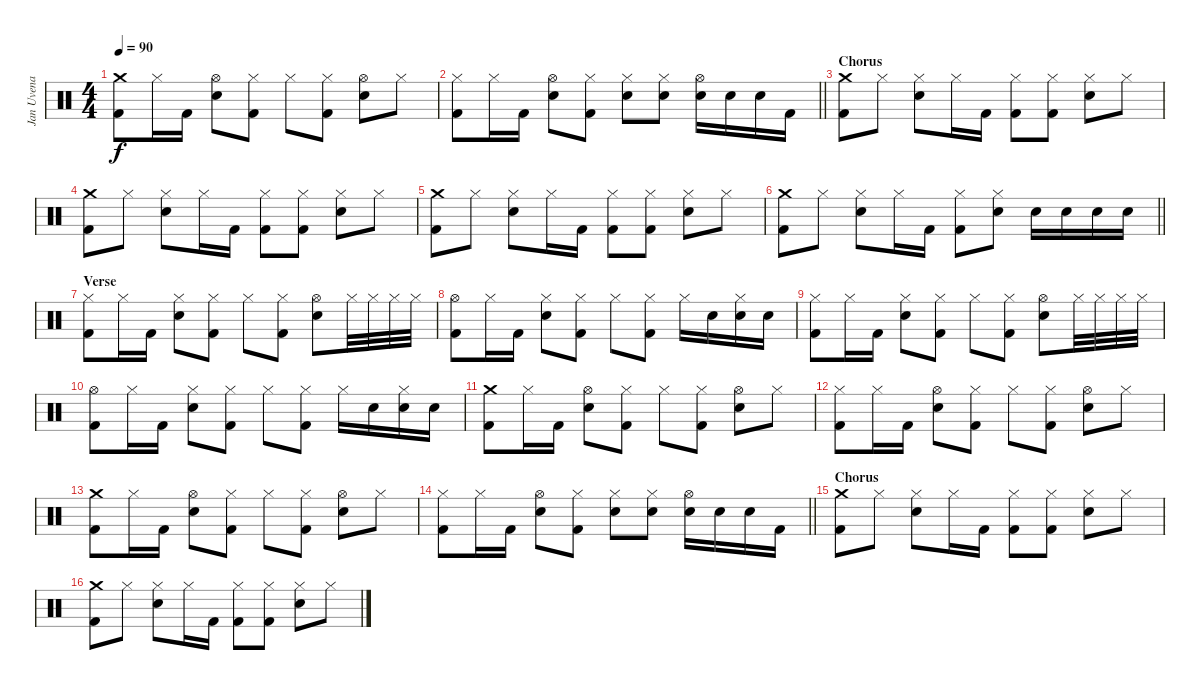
\track ("Jan Uvena" "Jan Uvena") {instrument percussion}
\staff {score}
\articulation defaults
\ts (4 4)
\tempo 90
\clef neutral
\ks c
("Crash medium (hit)" "Kick (hit) 2").8{dy f} "Hi-Hat (closed)".16 "Kick (hit) 2".16 ("Hi-Hat (open)" "Snare (hit) 2").8 ("Hi-Hat (closed)" "Kick (hit) 2").8 "Hi-Hat (closed)".8 ("Hi-Hat (closed)" "Kick (hit) 2").8 ("Hi-Hat (open)" "Snare (hit) 2").8 "Hi-Hat (closed)".8 |
\barLineRight lightlight
("Hi-Hat (closed)" "Kick (hit) 2").8 "Hi-Hat (closed)".16 "Kick (hit) 2".16 ("Hi-Hat (open)" "Snare (hit) 2").8 ("Hi-Hat (closed)" "Kick (hit) 2").8 ("Hi-Hat (closed)" "Snare (hit) 2").8 ("Hi-Hat (closed)" "Snare (hit) 2").8 ("Hi-Hat (open)" "Snare (hit) 2").16 "Snare (hit) 2".16 "Snare (hit) 2".16 "Kick (hit) 2".16 |
\section ("" "Chorus")
("Crash medium (hit)" "Kick (hit) 2").8 "Hi-Hat (closed)".8 ("Hi-Hat (closed)" "Snare (hit) 2").8 "Hi-Hat (closed)".16 "Kick (hit) 2".16 ("Hi-Hat (closed)" "Kick (hit) 2").8 ("Hi-Hat (closed)" "Kick (hit) 2").8 ("Hi-Hat (closed)" "Snare (hit) 2").8 "Hi-Hat (closed)".8 |
("Crash medium (hit)" "Kick (hit) 2").8 "Hi-Hat (closed)".8 ("Hi-Hat (closed)" "Snare (hit) 2").8 "Hi-Hat (closed)".16 "Kick (hit) 2".16 ("Hi-Hat (closed)" "Kick (hit) 2").8 ("Hi-Hat (closed)" "Kick (hit) 2").8 ("Hi-Hat (closed)" "Snare (hit) 2").8 "Hi-Hat (closed)".8 |
("Crash medium (hit)" "Kick (hit) 2").8 "Hi-Hat (closed)".8 ("Hi-Hat (closed)" "Snare (hit) 2").8 "Hi-Hat (closed)".16 "Kick (hit) 2".16 ("Hi-Hat (closed)" "Kick (hit) 2").8 ("Hi-Hat (closed)" "Kick (hit) 2").8 ("Hi-Hat (closed)" "Snare (hit) 2").8 "Hi-Hat (closed)".8 |
\barLineRight lightlight
("Crash medium (hit)" "Kick (hit) 2").8 "Hi-Hat (closed)".8 ("Hi-Hat (closed)" "Snare (hit) 2").8 "Hi-Hat (closed)".16 "Kick (hit) 2".16 ("Hi-Hat (closed)" "Kick (hit) 2").8 ("Hi-Hat (closed)" "Snare (hit) 2").8 "Snare (hit) 2".16 "Snare (hit) 2".16 "Snare (hit) 2".16 "Snare (hit) 2".16 |
\section ("" "Verse")
("Hi-Hat (closed)" "Kick (hit) 2").8 "Hi-Hat (closed)".16 "Kick (hit) 2".16 ("Hi-Hat (closed)" "Snare (hit) 2").8 ("Hi-Hat (closed)" "Kick (hit) 2").8 "Hi-Hat (closed)".8 ("Hi-Hat (closed)" "Kick (hit) 2").8 ("Hi-Hat (open)" "Snare (hit) 2").8 "Hi-Hat (closed)".32 "Hi-Hat (closed)".32 "Hi-Hat (closed)".32 "Hi-Hat (closed)".32 |
("Hi-Hat (open)" "Kick (hit) 2").8 "Hi-Hat (closed)".16 "Kick (hit) 2".16 ("Hi-Hat (closed)" "Snare (hit) 2").8 ("Hi-Hat (closed)" "Kick (hit) 2").8 "Hi-Hat (closed)".8 ("Hi-Hat (closed)" "Kick (hit) 2").8 "Hi-Hat (closed)".16 "Snare (hit) 2".16 ("Hi-Hat (closed)" "Snare (hit) 2").16 "Snare (hit) 2".16 |
("Hi-Hat (closed)" "Kick (hit) 2").8 "Hi-Hat (closed)".16 "Kick (hit) 2".16 ("Hi-Hat (closed)" "Snare (hit) 2").8 ("Hi-Hat (closed)" "Kick (hit) 2").8 "Hi-Hat (closed)".8 ("Hi-Hat (closed)" "Kick (hit) 2").8 ("Hi-Hat (open)" "Snare (hit) 2").8 "Hi-Hat (closed)".32 "Hi-Hat (closed)".32 "Hi-Hat (closed)".32 "Hi-Hat (closed)".32 |
("Hi-Hat (open)" "Kick (hit) 2").8 "Hi-Hat (closed)".16 "Kick (hit) 2".16 ("Hi-Hat (closed)" "Snare (hit) 2").8 ("Hi-Hat (closed)" "Kick (hit) 2").8 "Hi-Hat (closed)".8 ("Hi-Hat (closed)" "Kick (hit) 2").8 "Hi-Hat (closed)".16 "Snare (hit) 2".16 ("Hi-Hat (closed)" "Snare (hit) 2").16 "Snare (hit) 2".16 |
("Crash medium (hit)" "Kick (hit) 2").8 "Hi-Hat (closed)".16 "Kick (hit) 2".16 ("Hi-Hat (open)" "Snare (hit) 2").8 ("Hi-Hat (closed)" "Kick (hit) 2").8 "Hi-Hat (closed)".8 ("Hi-Hat (closed)" "Kick (hit) 2").8 ("Hi-Hat (open)" "Snare (hit) 2").8 "Hi-Hat (closed)".8 |
("Hi-Hat (closed)" "Kick (hit) 2").8 "Hi-Hat (closed)".16 "Kick (hit) 2".16 ("Hi-Hat (open)" "Snare (hit) 2").8 ("Hi-Hat (closed)" "Kick (hit) 2").8 "Hi-Hat (closed)".8 ("Hi-Hat (closed)" "Kick (hit) 2").8 ("Hi-Hat (open)" "Snare (hit) 2").8 "Hi-Hat (closed)".8 |
("Crash medium (hit)" "Kick (hit) 2").8 "Hi-Hat (closed)".16 "Kick (hit) 2".16 ("Hi-Hat (open)" "Snare (hit) 2").8 ("Hi-Hat (closed)" "Kick (hit) 2").8 "Hi-Hat (closed)".8 ("Hi-Hat (closed)" "Kick (hit) 2").8 ("Hi-Hat (open)" "Snare (hit) 2").8 "Hi-Hat (closed)".8 |
\barLineRight lightlight
("Hi-Hat (closed)" "Kick (hit) 2").8 "Hi-Hat (closed)".16 "Kick (hit) 2".16 ("Hi-Hat (open)" "Snare (hit) 2").8 ("Hi-Hat (closed)" "Kick (hit) 2").8 ("Hi-Hat (closed)" "Snare (hit) 2").8 ("Hi-Hat (closed)" "Snare (hit) 2").8 ("Hi-Hat (open)" "Snare (hit) 2").16 "Snare (hit) 2".16 "Snare (hit) 2".16 "Kick (hit) 2".16 |
\section ("" "Chorus")
("Crash medium (hit)" "Kick (hit) 2").8 "Hi-Hat (closed)".8 ("Hi-Hat (closed)" "Snare (hit) 2").8 "Hi-Hat (closed)".16 "Kick (hit) 2".16 ("Hi-Hat (closed)" "Kick (hit) 2").8 ("Hi-Hat (closed)" "Kick (hit) 2").8 ("Hi-Hat (closed)" "Snare (hit) 2").8 "Hi-Hat (closed)".8 |
("Crash medium (hit)" "Kick (hit) 2").8 "Hi-Hat (closed)".8 ("Hi-Hat (closed)" "Snare (hit) 2").8 "Hi-Hat (closed)".16 "Kick (hit) 2".16 ("Hi-Hat (closed)" "Kick (hit) 2").8 ("Hi-Hat (closed)" "Kick (hit) 2").8 ("Hi-Hat (closed)" "Snare (hit) 2").8 "Hi-Hat (closed)".8
